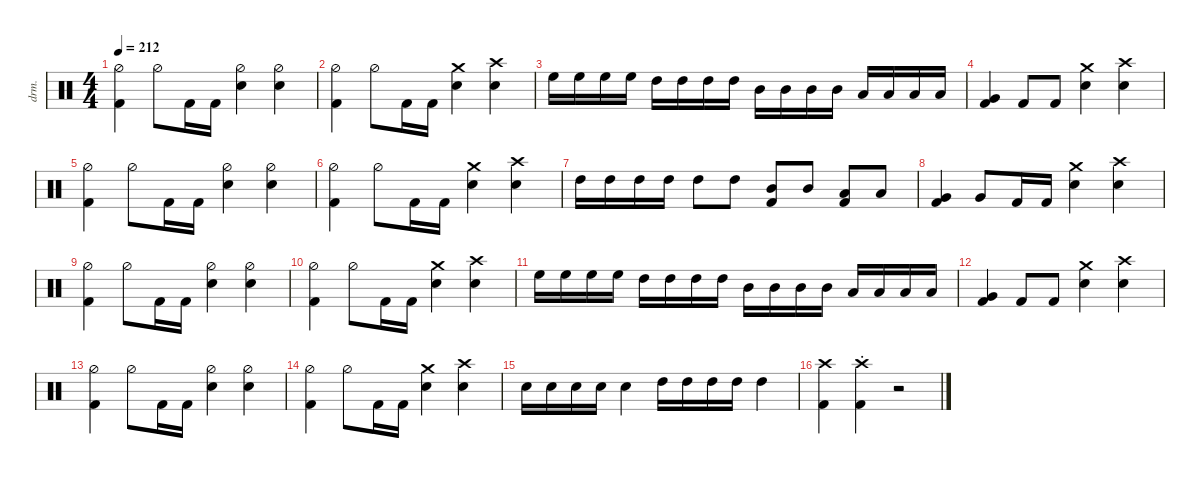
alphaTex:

\defaultSystemsLayout 4
\hideDynamics
\bracketExtendMode nobrackets
\track ("Drums" "drm.") {defaultSystemsLayout 4 multiBarRest instrument percussion}
\staff
\articulation defaults
\ts (4 4)
\tempo 212
\clef neutral
\ks c
("Hi-Hat (half)" "Kick (hit) 2").4{dy f} "Hi-Hat (half)".8 "Kick (hit) 2".16 "Kick (hit) 2".16 ("Snare (hit) 2" "Hi-Hat (half)").4 ("Snare (hit) 2" "Hi-Hat (half)").4 |
("Hi-Hat (half)" "Kick (hit) 2").4 "Hi-Hat (half)".8 "Kick (hit) 2".16 "Kick (hit) 2".16 ("Snare (hit) 2" "Crash medium (hit)").4 ("Snare (hit) 2" "Crash high (hit)").4 |
"High Floor Tom (hit)".16{dy fff} "High Floor Tom (hit)".16 "High Floor Tom (hit)".16 "High Floor Tom (hit)".16 "High Tom (hit)".16 "High Tom (hit)".16 "High Tom (hit)".16 "High Tom (hit)".16 "Mid Tom (hit)".16 "Mid Tom (hit)".16 "Mid Tom (hit)".16 "Mid Tom (hit)".16 "Low Tom (hit)".16 "Low Tom (hit)".16 "Low Tom (hit)".16 "Low Tom (hit)".16 |
("Kick (hit) 2" "Very Low Tom (hit)").4{dy f} "Kick (hit) 2".8 "Kick (hit) 2".8 ("Snare (hit) 2" "Crash medium (hit)").4 ("Snare (hit) 2" "Crash high (hit)").4 |
("Hi-Hat (half)" "Kick (hit) 2").4 "Hi-Hat (half)".8 "Kick (hit) 2".16 "Kick (hit) 2".16 ("Snare (hit) 2" "Hi-Hat (half)").4 ("Snare (hit) 2" "Hi-Hat (half)").4 |
("Hi-Hat (half)" "Kick (hit) 2").4 "Hi-Hat (half)".8 "Kick (hit) 2".16 "Kick (hit) 2".16 ("Snare (hit) 2" "Crash medium (hit)").4 ("Snare (hit) 2" "Crash high (hit)").4 |
"High Tom (hit)".16{dy fff} "High Tom (hit)".16 "High Tom (hit)".16 "High Tom (hit)".16 "High Tom (hit)".8 "High Tom (hit)".8 ("Mid Tom (hit)" "Kick (hit) 2").8{dy f} "Mid Tom (hit)".8{dy fff} ("Low Tom (hit)" "Kick (hit) 2").8{dy f} "Low Tom (hit)".8{dy fff} |
("Kick (hit) 2" "Very Low Tom (hit)").4{dy f} "Very Low Tom (hit)".8{dy fff} "Kick (hit) 2".16{dy f} "Kick (hit) 2".16 ("Snare (hit) 2" "Crash medium (hit)").4 ("Snare (hit) 2" "Crash high (hit)").4 |
("Hi-Hat (half)" "Kick (hit) 2").4 "Hi-Hat (half)".8 "Kick (hit) 2".16 "Kick (hit) 2".16 ("Snare (hit) 2" "Hi-Hat (half)").4 ("Snare (hit) 2" "Hi-Hat (half)").4 |
("Hi-Hat (half)" "Kick (hit) 2").4 "Hi-Hat (half)".8 "Kick (hit) 2".16 "Kick (hit) 2".16 ("Snare (hit) 2" "Crash medium (hit)").4 ("Snare (hit) 2" "Crash high (hit)").4 |
"High Floor Tom (hit)".16{dy fff} "High Floor Tom (hit)".16 "High Floor Tom (hit)".16 "High Floor Tom (hit)".16 "High Tom (hit)".16 "High Tom (hit)".16 "High Tom (hit)".16 "High Tom (hit)".16 "Mid Tom (hit)".16 "Mid Tom (hit)".16 "Mid Tom (hit)".16 "Mid Tom (hit)".16 "Low Tom (hit)".16 "Low Tom (hit)".16 "Low Tom (hit)".16 "Low Tom (hit)".16 |
("Kick (hit) 2" "Very Low Tom (hit)").4{dy f} "Kick (hit) 2".8 "Kick (hit) 2".8 ("Snare (hit) 2" "Crash medium (hit)").4 ("Snare (hit) 2" "Crash high (hit)").4 |
("Hi-Hat (half)" "Kick (hit) 2").4 "Hi-Hat (half)".8 "Kick (hit) 2".16 "Kick (hit) 2".16 ("Snare (hit) 2" "Hi-Hat (half)").4 ("Snare (hit) 2" "Hi-Hat (half)").4 |
("Hi-Hat (half)" "Kick (hit) 2").4 "Hi-Hat (half)".8 "Kick (hit) 2".16 "Kick (hit) 2".16 ("Snare (hit) 2" "Crash medium (hit)").4 ("Snare (hit) 2" "Crash high (hit)").4 |
"Snare (hit) 2".16 "Snare (hit) 2".16{dy mf} "Snare (hit) 2".16 "Snare (hit) 2".16 "Snare (hit) 2".4{dy f} "High Tom (hit)".16{dy ff} "High Tom (hit)".16 "High Tom (hit)".16 "High Tom (hit)".16 "High Tom (hit)".4 |
("Kick (hit) 2" "Crash high (hit)").4 ("Kick (hit) 2" "Crash high (hit)"{st}).4 r.2
